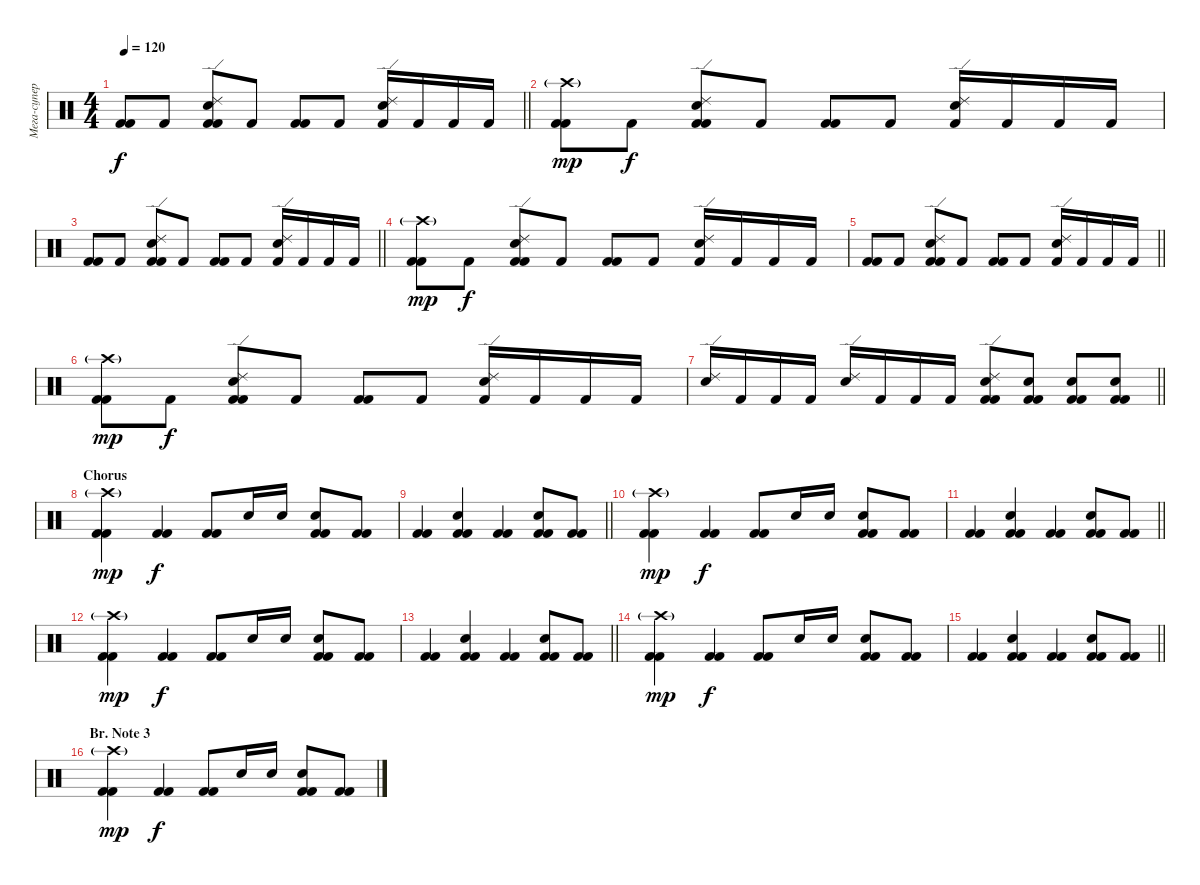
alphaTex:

\track ("Мега-супер-охеренный драммер" "Мега-супер") {instrument percussion}
\staff {score}
\articulation defaults
\ts (4 4)
\tempo 120
\clef neutral
\barLineRight lightlight
\ks c
("Kick (hit) 2" "Kick (hit) 2").8{dy f} "Kick (hit) 2".8 ("Ride (edge) 2" "Electric Snare (hit)" "Kick (hit) 2" "Kick (hit) 2").8 "Kick (hit) 2".8 ("Kick (hit) 2" "Kick (hit) 2").8 "Kick (hit) 2".8 ("Ride (edge) 2" "Electric Snare (hit)" "Kick (hit) 2").16 "Kick (hit) 2".16 "Kick (hit) 2".16 "Kick (hit) 2".16 |
("Crash high (hit)"{g} "Kick (hit) 2" "Kick (hit) 2").8{dy mp} "Kick (hit) 2".8{dy f} ("Ride (edge) 2" "Electric Snare (hit)" "Kick (hit) 2" "Kick (hit) 2").8 "Kick (hit) 2".8 ("Kick (hit) 2" "Kick (hit) 2").8 "Kick (hit) 2".8 ("Ride (edge) 2" "Electric Snare (hit)" "Kick (hit) 2").16 "Kick (hit) 2".16 "Kick (hit) 2".16 "Kick (hit) 2".16 |
\barLineRight lightlight
("Kick (hit) 2" "Kick (hit) 2").8 "Kick (hit) 2".8 ("Ride (edge) 2" "Electric Snare (hit)" "Kick (hit) 2" "Kick (hit) 2").8 "Kick (hit) 2".8 ("Kick (hit) 2" "Kick (hit) 2").8 "Kick (hit) 2".8 ("Ride (edge) 2" "Electric Snare (hit)" "Kick (hit) 2").16 "Kick (hit) 2".16 "Kick (hit) 2".16 "Kick (hit) 2".16 |
("Crash high (hit)"{g} "Kick (hit) 2" "Kick (hit) 2").8{dy mp} "Kick (hit) 2".8{dy f} ("Ride (edge) 2" "Electric Snare (hit)" "Kick (hit) 2" "Kick (hit) 2").8 "Kick (hit) 2".8 ("Kick (hit) 2" "Kick (hit) 2").8 "Kick (hit) 2".8 ("Ride (edge) 2" "Electric Snare (hit)" "Kick (hit) 2").16 "Kick (hit) 2".16 "Kick (hit) 2".16 "Kick (hit) 2".16 |
\barLineRight lightlight
("Kick (hit) 2" "Kick (hit) 2").8 "Kick (hit) 2".8 ("Ride (edge) 2" "Electric Snare (hit)" "Kick (hit) 2" "Kick (hit) 2").8 "Kick (hit) 2".8 ("Kick (hit) 2" "Kick (hit) 2").8 "Kick (hit) 2".8 ("Ride (edge) 2" "Electric Snare (hit)" "Kick (hit) 2").16 "Kick (hit) 2".16 "Kick (hit) 2".16 "Kick (hit) 2".16 |
("Crash high (hit)"{g} "Kick (hit) 2" "Kick (hit) 2").8{dy mp} "Kick (hit) 2".8{dy f} ("Ride (edge) 2" "Electric Snare (hit)" "Kick (hit) 2" "Kick (hit) 2").8 "Kick (hit) 2".8 ("Kick (hit) 2" "Kick (hit) 2").8 "Kick (hit) 2".8 ("Ride (edge) 2" "Electric Snare (hit)" "Kick (hit) 2").16 "Kick (hit) 2".16 "Kick (hit) 2".16 "Kick (hit) 2".16 |
\barLineRight lightlight
("Ride (edge) 2" "Electric Snare (hit)").16 "Kick (hit) 2".16 "Kick (hit) 2".16 "Kick (hit) 2".16 ("Ride (edge) 2" "Electric Snare (hit)").16 "Kick (hit) 2".16 "Kick (hit) 2".16 "Kick (hit) 2".16 ("Ride (edge) 2" "Electric Snare (hit)" "Kick (hit) 2" "Kick (hit) 2").8 ("Electric Snare (hit)" "Kick (hit) 2" "Kick (hit) 2").8 ("Electric Snare (hit)" "Kick (hit) 2" "Kick (hit) 2").8 ("Electric Snare (hit)" "Kick (hit) 2" "Kick (hit) 2").8 |
\section ("" "Chorus")
("Crash high (hit)"{g} "Kick (hit) 2" "Kick (hit) 2").4{dy mp} ("Kick (hit) 2" "Kick (hit) 2").4{dy f} ("Kick (hit) 2" "Kick (hit) 2").8 "Electric Snare (hit)".16 "Electric Snare (hit)".16 ("Electric Snare (hit)" "Kick (hit) 2" "Kick (hit) 2").8 ("Kick (hit) 2" "Kick (hit) 2").8 |
\barLineRight lightlight
("Kick (hit) 2" "Kick (hit) 2").4 ("Electric Snare (hit)" "Kick (hit) 2" "Kick (hit) 2").4 ("Kick (hit) 2" "Kick (hit) 2").4 ("Electric Snare (hit)" "Kick (hit) 2" "Kick (hit) 2").8 ("Kick (hit) 2" "Kick (hit) 2").8 |
("Crash high (hit)"{g} "Kick (hit) 2" "Kick (hit) 2").4{dy mp} ("Kick (hit) 2" "Kick (hit) 2").4{dy f} ("Kick (hit) 2" "Kick (hit) 2").8 "Electric Snare (hit)".16 "Electric Snare (hit)".16 ("Electric Snare (hit)" "Kick (hit) 2" "Kick (hit) 2").8 ("Kick (hit) 2" "Kick (hit) 2").8 |
\barLineRight lightlight
("Kick (hit) 2" "Kick (hit) 2").4 ("Electric Snare (hit)" "Kick (hit) 2" "Kick (hit) 2").4 ("Kick (hit) 2" "Kick (hit) 2").4 ("Electric Snare (hit)" "Kick (hit) 2" "Kick (hit) 2").8 ("Kick (hit) 2" "Kick (hit) 2").8 |
("Crash high (hit)"{g} "Kick (hit) 2" "Kick (hit) 2").4{dy mp} ("Kick (hit) 2" "Kick (hit) 2").4{dy f} ("Kick (hit) 2" "Kick (hit) 2").8 "Electric Snare (hit)".16 "Electric Snare (hit)".16 ("Electric Snare (hit)" "Kick (hit) 2" "Kick (hit) 2").8 ("Kick (hit) 2" "Kick (hit) 2").8 |
\barLineRight lightlight
("Kick (hit) 2" "Kick (hit) 2").4 ("Electric Snare (hit)" "Kick (hit) 2" "Kick (hit) 2").4 ("Kick (hit) 2" "Kick (hit) 2").4 ("Electric Snare (hit)" "Kick (hit) 2" "Kick (hit) 2").8 ("Kick (hit) 2" "Kick (hit) 2").8 |
("Crash high (hit)"{g} "Kick (hit) 2" "Kick (hit) 2").4{dy mp} ("Kick (hit) 2" "Kick (hit) 2").4{dy f} ("Kick (hit) 2" "Kick (hit) 2").8 "Electric Snare (hit)".16 "Electric Snare (hit)".16 ("Electric Snare (hit)" "Kick (hit) 2" "Kick (hit) 2").8 ("Kick (hit) 2" "Kick (hit) 2").8 |
\barLineRight lightlight
("Kick (hit) 2" "Kick (hit) 2").4 ("Electric Snare (hit)" "Kick (hit) 2" "Kick (hit) 2").4 ("Kick (hit) 2" "Kick (hit) 2").4 ("Electric Snare (hit)" "Kick (hit) 2" "Kick (hit) 2").8 ("Kick (hit) 2" "Kick (hit) 2").8 |
\section ("" "Br. Note 3")
("Crash high (hit)"{g} "Kick (hit) 2" "Kick (hit) 2").4{dy mp} ("Kick (hit) 2" "Kick (hit) 2").4{dy f} ("Kick (hit) 2" "Kick (hit) 2").8 "Electric Snare (hit)".16 "Electric Snare (hit)".16 ("Electric Snare (hit)" "Kick (hit) 2" "Kick (hit) 2").8 ("Kick (hit) 2" "Kick (hit) 2").8
